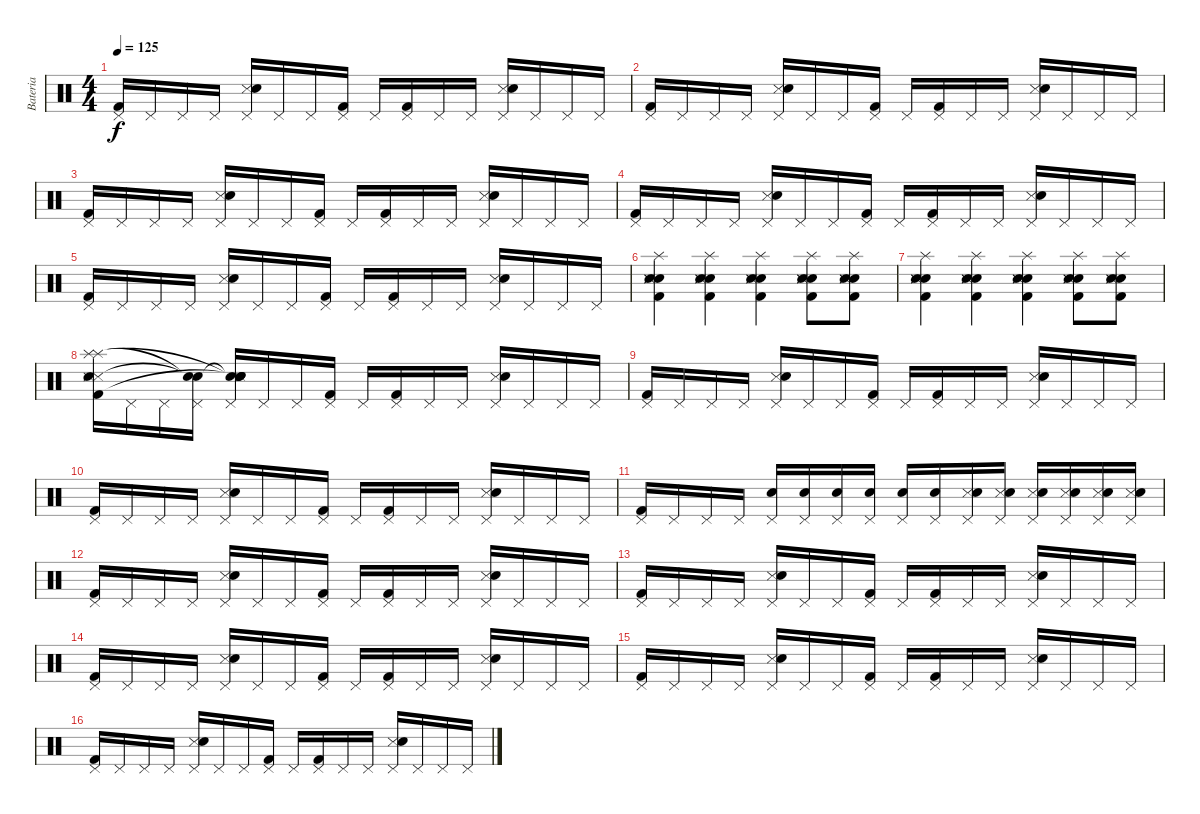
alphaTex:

\track ("Bateria" "Bateria") {instrument percussion}
\staff {score}
\articulation defaults
\ts (4 4)
\tempo 125
\clef neutral
\ks c
("Pedal Hi-Hat (hit)" "Kick (hit) 2").16{dy f} "Pedal Hi-Hat (hit)".16 "Pedal Hi-Hat (hit)".16 "Pedal Hi-Hat (hit)".16 ("Pedal Hi-Hat (hit)" "Snare (side stick) 3" "Snare (hit) 2").16 "Pedal Hi-Hat (hit)".16 "Pedal Hi-Hat (hit)".16 ("Pedal Hi-Hat (hit)" "Kick (hit) 2").16 "Pedal Hi-Hat (hit)".16 ("Pedal Hi-Hat (hit)" "Kick (hit) 2").16 "Pedal Hi-Hat (hit)".16 "Pedal Hi-Hat (hit)".16 ("Pedal Hi-Hat (hit)" "Snare (side stick) 3" "Snare (hit) 2").16 "Pedal Hi-Hat (hit)".16 "Pedal Hi-Hat (hit)".16 "Pedal Hi-Hat (hit)".16 |
("Pedal Hi-Hat (hit)" "Kick (hit) 2").16 "Pedal Hi-Hat (hit)".16 "Pedal Hi-Hat (hit)".16 "Pedal Hi-Hat (hit)".16 ("Pedal Hi-Hat (hit)" "Snare (side stick) 3" "Snare (hit) 2").16 "Pedal Hi-Hat (hit)".16 "Pedal Hi-Hat (hit)".16 ("Pedal Hi-Hat (hit)" "Kick (hit) 2").16 "Pedal Hi-Hat (hit)".16 ("Pedal Hi-Hat (hit)" "Kick (hit) 2").16 "Pedal Hi-Hat (hit)".16 "Pedal Hi-Hat (hit)".16 ("Pedal Hi-Hat (hit)" "Snare (side stick) 3" "Snare (hit) 2").16 "Pedal Hi-Hat (hit)".16 "Pedal Hi-Hat (hit)".16 "Pedal Hi-Hat (hit)".16 |
("Pedal Hi-Hat (hit)" "Kick (hit) 2").16 "Pedal Hi-Hat (hit)".16 "Pedal Hi-Hat (hit)".16 "Pedal Hi-Hat (hit)".16 ("Pedal Hi-Hat (hit)" "Snare (side stick) 3" "Snare (hit) 2").16 "Pedal Hi-Hat (hit)".16 "Pedal Hi-Hat (hit)".16 ("Pedal Hi-Hat (hit)" "Kick (hit) 2").16 "Pedal Hi-Hat (hit)".16 ("Pedal Hi-Hat (hit)" "Kick (hit) 2").16 "Pedal Hi-Hat (hit)".16 "Pedal Hi-Hat (hit)".16 ("Pedal Hi-Hat (hit)" "Snare (side stick) 3" "Snare (hit) 2").16 "Pedal Hi-Hat (hit)".16 "Pedal Hi-Hat (hit)".16 "Pedal Hi-Hat (hit)".16 |
("Pedal Hi-Hat (hit)" "Kick (hit) 2").16 "Pedal Hi-Hat (hit)".16 "Pedal Hi-Hat (hit)".16 "Pedal Hi-Hat (hit)".16 ("Pedal Hi-Hat (hit)" "Snare (side stick) 3" "Snare (hit) 2").16 "Pedal Hi-Hat (hit)".16 "Pedal Hi-Hat (hit)".16 ("Pedal Hi-Hat (hit)" "Kick (hit) 2").16 "Pedal Hi-Hat (hit)".16 ("Pedal Hi-Hat (hit)" "Kick (hit) 2").16 "Pedal Hi-Hat (hit)".16 "Pedal Hi-Hat (hit)".16 ("Pedal Hi-Hat (hit)" "Snare (side stick) 3" "Snare (hit) 2").16 "Pedal Hi-Hat (hit)".16 "Pedal Hi-Hat (hit)".16 "Pedal Hi-Hat (hit)".16 |
("Pedal Hi-Hat (hit)" "Kick (hit) 2").16 "Pedal Hi-Hat (hit)".16 "Pedal Hi-Hat (hit)".16 "Pedal Hi-Hat (hit)".16 ("Pedal Hi-Hat (hit)" "Snare (side stick) 3" "Snare (hit) 2").16 "Pedal Hi-Hat (hit)".16 "Pedal Hi-Hat (hit)".16 ("Pedal Hi-Hat (hit)" "Kick (hit) 2").16 "Pedal Hi-Hat (hit)".16 ("Pedal Hi-Hat (hit)" "Kick (hit) 2").16 "Pedal Hi-Hat (hit)".16 "Pedal Hi-Hat (hit)".16 ("Pedal Hi-Hat (hit)" "Snare (side stick) 3" "Snare (hit) 2").16 "Pedal Hi-Hat (hit)".16 "Pedal Hi-Hat (hit)".16 "Pedal Hi-Hat (hit)".16 |
("Splash (hit)" "Snare (hit) 2" "Snare (side stick) 3" "Snare (hit) 2" "Snare (side stick) 3" "Kick (hit) 2").4 ("Splash (hit)" "Snare (hit) 2" "Snare (side stick) 3" "Snare (hit) 2" "Snare (side stick) 3" "Kick (hit) 2").4 ("Splash (hit)" "Snare (hit) 2" "Snare (side stick) 3" "Snare (hit) 2" "Snare (side stick) 3" "Kick (hit) 2").4 ("Splash (hit)" "Snare (hit) 2" "Snare (side stick) 3" "Snare (hit) 2" "Snare (side stick) 3" "Kick (hit) 2").8 ("Splash (hit)" "Snare (hit) 2" "Snare (side stick) 3" "Snare (hit) 2" "Snare (side stick) 3" "Kick (hit) 2").8 |
("Splash (hit)" "Snare (hit) 2" "Snare (side stick) 3" "Snare (hit) 2" "Snare (side stick) 3" "Kick (hit) 2").4 ("Splash (hit)" "Snare (hit) 2" "Snare (side stick) 3" "Snare (hit) 2" "Snare (side stick) 3" "Kick (hit) 2").4 ("Splash (hit)" "Snare (hit) 2" "Snare (side stick) 3" "Snare (hit) 2" "Snare (side stick) 3" "Kick (hit) 2").4 ("Splash (hit)" "Snare (hit) 2" "Snare (side stick) 3" "Snare (hit) 2" "Snare (side stick) 3" "Kick (hit) 2").8 ("Splash (hit)" "Snare (hit) 2" "Snare (side stick) 3" "Snare (hit) 2" "Snare (side stick) 3" "Kick (hit) 2").8 |
("Snare (side stick) 3" "Splash (hit)" "Snare (side stick) 3" "Snare (hit) 2" "Splash (hit)" "Kick (hit) 2").16 "Pedal Hi-Hat (hit)".16 "Pedal Hi-Hat (hit)".16 ("Pedal Hi-Hat (hit)" "Snare (hit)"{t} "Snare (hit)"{t}).16 ("Pedal Hi-Hat (hit)" "Snare (hit)"{t} "Snare (side stick) 3" "Snare (hit) 2" "Snare (hit)"{t} "Snare (hit)"{t}).16 "Pedal Hi-Hat (hit)".16 "Pedal Hi-Hat (hit)".16 ("Pedal Hi-Hat (hit)" "Kick (hit) 2").16 "Pedal Hi-Hat (hit)".16 ("Pedal Hi-Hat (hit)" "Kick (hit) 2").16 "Pedal Hi-Hat (hit)".16 "Pedal Hi-Hat (hit)".16 ("Pedal Hi-Hat (hit)" "Snare (side stick) 3" "Snare (hit) 2").16 "Pedal Hi-Hat (hit)".16 "Pedal Hi-Hat (hit)".16 "Pedal Hi-Hat (hit)".16 |
("Pedal Hi-Hat (hit)" "Kick (hit) 2").16 "Pedal Hi-Hat (hit)".16 "Pedal Hi-Hat (hit)".16 "Pedal Hi-Hat (hit)".16 ("Pedal Hi-Hat (hit)" "Snare (side stick) 3" "Snare (hit) 2").16 "Pedal Hi-Hat (hit)".16 "Pedal Hi-Hat (hit)".16 ("Pedal Hi-Hat (hit)" "Kick (hit) 2").16 "Pedal Hi-Hat (hit)".16 ("Pedal Hi-Hat (hit)" "Kick (hit) 2").16 "Pedal Hi-Hat (hit)".16 "Pedal Hi-Hat (hit)".16 ("Pedal Hi-Hat (hit)" "Snare (side stick) 3" "Snare (hit) 2").16 "Pedal Hi-Hat (hit)".16 "Pedal Hi-Hat (hit)".16 "Pedal Hi-Hat (hit)".16 |
("Pedal Hi-Hat (hit)" "Kick (hit) 2").16 "Pedal Hi-Hat (hit)".16 "Pedal Hi-Hat (hit)".16 "Pedal Hi-Hat (hit)".16 ("Pedal Hi-Hat (hit)" "Snare (side stick) 3" "Snare (hit) 2").16 "Pedal Hi-Hat (hit)".16 "Pedal Hi-Hat (hit)".16 ("Pedal Hi-Hat (hit)" "Kick (hit) 2").16 "Pedal Hi-Hat (hit)".16 ("Pedal Hi-Hat (hit)" "Kick (hit) 2").16 "Pedal Hi-Hat (hit)".16 "Pedal Hi-Hat (hit)".16 ("Pedal Hi-Hat (hit)" "Snare (side stick) 3" "Snare (hit) 2").16 "Pedal Hi-Hat (hit)".16 "Pedal Hi-Hat (hit)".16 "Pedal Hi-Hat (hit)".16 |
("Pedal Hi-Hat (hit)" "Kick (hit) 2").16 "Pedal Hi-Hat (hit)".16 "Pedal Hi-Hat (hit)".16 "Pedal Hi-Hat (hit)".16 ("Pedal Hi-Hat (hit)" "Snare (hit) 2").16 ("Pedal Hi-Hat (hit)" "Snare (hit) 2").16 ("Pedal Hi-Hat (hit)" "Snare (hit) 2").16 ("Pedal Hi-Hat (hit)" "Snare (hit) 2").16 ("Pedal Hi-Hat (hit)" "Snare (hit) 2").16 ("Pedal Hi-Hat (hit)" "Snare (hit) 2").16 ("Pedal Hi-Hat (hit)" "Snare (side stick) 3" "Snare (hit) 2").16 ("Pedal Hi-Hat (hit)" "Snare (side stick) 3" "Snare (hit) 2").16 ("Pedal Hi-Hat (hit)" "Snare (side stick) 3" "Snare (hit) 2").16 ("Pedal Hi-Hat (hit)" "Snare (side stick) 3" "Snare (hit) 2").16 ("Pedal Hi-Hat (hit)" "Snare (side stick) 3" "Snare (hit) 2").16 ("Pedal Hi-Hat (hit)" "Snare (side stick) 3" "Snare (hit) 2").16 |
("Pedal Hi-Hat (hit)" "Kick (hit) 2").16 "Pedal Hi-Hat (hit)".16 "Pedal Hi-Hat (hit)".16 "Pedal Hi-Hat (hit)".16 ("Pedal Hi-Hat (hit)" "Snare (side stick) 3" "Snare (hit) 2").16 "Pedal Hi-Hat (hit)".16 "Pedal Hi-Hat (hit)".16 ("Pedal Hi-Hat (hit)" "Kick (hit) 2").16 "Pedal Hi-Hat (hit)".16 ("Pedal Hi-Hat (hit)" "Kick (hit) 2").16 "Pedal Hi-Hat (hit)".16 "Pedal Hi-Hat (hit)".16 ("Pedal Hi-Hat (hit)" "Snare (side stick) 3" "Snare (hit) 2").16 "Pedal Hi-Hat (hit)".16 "Pedal Hi-Hat (hit)".16 "Pedal Hi-Hat (hit)".16 |
("Pedal Hi-Hat (hit)" "Kick (hit) 2").16 "Pedal Hi-Hat (hit)".16 "Pedal Hi-Hat (hit)".16 "Pedal Hi-Hat (hit)".16 ("Pedal Hi-Hat (hit)" "Snare (side stick) 3" "Snare (hit) 2").16 "Pedal Hi-Hat (hit)".16 "Pedal Hi-Hat (hit)".16 ("Pedal Hi-Hat (hit)" "Kick (hit) 2").16 "Pedal Hi-Hat (hit)".16 ("Pedal Hi-Hat (hit)" "Kick (hit) 2").16 "Pedal Hi-Hat (hit)".16 "Pedal Hi-Hat (hit)".16 ("Pedal Hi-Hat (hit)" "Snare (side stick) 3" "Snare (hit) 2").16 "Pedal Hi-Hat (hit)".16 "Pedal Hi-Hat (hit)".16 "Pedal Hi-Hat (hit)".16 |
("Pedal Hi-Hat (hit)" "Kick (hit) 2").16 "Pedal Hi-Hat (hit)".16 "Pedal Hi-Hat (hit)".16 "Pedal Hi-Hat (hit)".16 ("Pedal Hi-Hat (hit)" "Snare (side stick) 3" "Snare (hit) 2").16 "Pedal Hi-Hat (hit)".16 "Pedal Hi-Hat (hit)".16 ("Pedal Hi-Hat (hit)" "Kick (hit) 2").16 "Pedal Hi-Hat (hit)".16 ("Pedal Hi-Hat (hit)" "Kick (hit) 2").16 "Pedal Hi-Hat (hit)".16 "Pedal Hi-Hat (hit)".16 ("Pedal Hi-Hat (hit)" "Snare (side stick) 3" "Snare (hit) 2").16 "Pedal Hi-Hat (hit)".16 "Pedal Hi-Hat (hit)".16 "Pedal Hi-Hat (hit)".16 |
("Pedal Hi-Hat (hit)" "Kick (hit) 2").16 "Pedal Hi-Hat (hit)".16 "Pedal Hi-Hat (hit)".16 "Pedal Hi-Hat (hit)".16 ("Pedal Hi-Hat (hit)" "Snare (side stick) 3" "Snare (hit) 2").16 "Pedal Hi-Hat (hit)".16 "Pedal Hi-Hat (hit)".16 ("Pedal Hi-Hat (hit)" "Kick (hit) 2").16 "Pedal Hi-Hat (hit)".16 ("Pedal Hi-Hat (hit)" "Kick (hit) 2").16 "Pedal Hi-Hat (hit)".16 "Pedal Hi-Hat (hit)".16 ("Pedal Hi-Hat (hit)" "Snare (side stick) 3" "Snare (hit) 2").16 "Pedal Hi-Hat (hit)".16 "Pedal Hi-Hat (hit)".16 "Pedal Hi-Hat (hit)".16 |
("Pedal Hi-Hat (hit)" "Kick (hit) 2").16 "Pedal Hi-Hat (hit)".16 "Pedal Hi-Hat (hit)".16 "Pedal Hi-Hat (hit)".16 ("Pedal Hi-Hat (hit)" "Snare (side stick) 3" "Snare (hit) 2").16 "Pedal Hi-Hat (hit)".16 "Pedal Hi-Hat (hit)".16 ("Pedal Hi-Hat (hit)" "Kick (hit) 2").16 "Pedal Hi-Hat (hit)".16 ("Pedal Hi-Hat (hit)" "Kick (hit) 2").16 "Pedal Hi-Hat (hit)".16 "Pedal Hi-Hat (hit)".16 ("Pedal Hi-Hat (hit)" "Snare (side stick) 3" "Snare (hit) 2").16 "Pedal Hi-Hat (hit)".16 "Pedal Hi-Hat (hit)".16 "Pedal Hi-Hat (hit)".16
